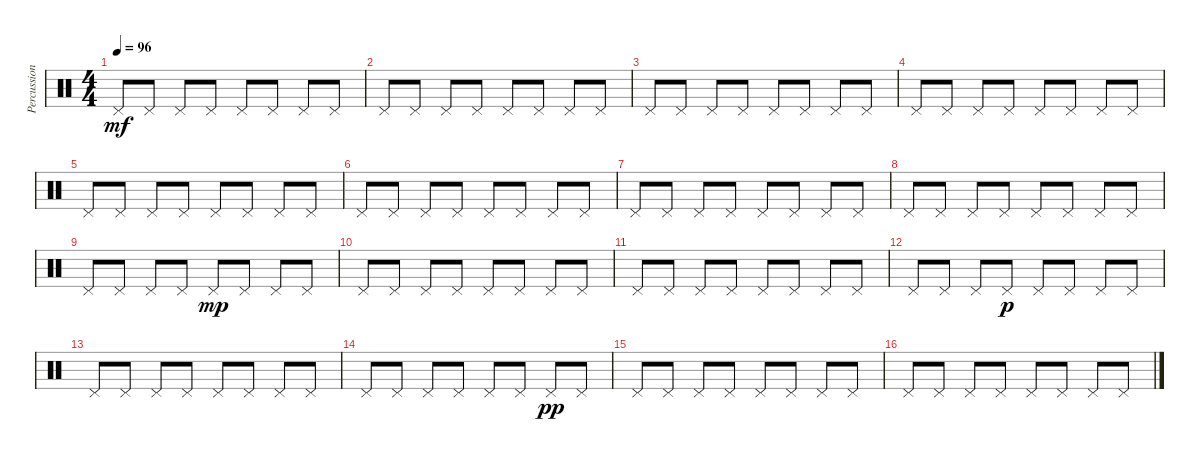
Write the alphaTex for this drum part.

\track ("Percussion" "Percussion") {instrument percussion}
\staff {score}
\articulation defaults
\ts (4 4)
\tempo 96
\clef neutral
\ks c "Pedal Hi-Hat (hit)".8{dy mf} "Pedal Hi-Hat (hit)".8 "Pedal Hi-Hat (hit)".8 "Pedal Hi-Hat (hit)".8 "Pedal Hi-Hat (hit)".8 "Pedal Hi-Hat (hit)".8 "Pedal Hi-Hat (hit)".8 "Pedal Hi-Hat (hit)".8
|
"Pedal Hi-Hat (hit)".8 "Pedal Hi-Hat (hit)".8 "Pedal Hi-Hat (hit)".8 "Pedal Hi-Hat (hit)".8 "Pedal Hi-Hat (hit)".8 "Pedal Hi-Hat (hit)".8 "Pedal Hi-Hat (hit)".8 "Pedal Hi-Hat (hit)".8 |
"Pedal Hi-Hat (hit)".8 "Pedal Hi-Hat (hit)".8 "Pedal Hi-Hat (hit)".8 "Pedal Hi-Hat (hit)".8 "Pedal Hi-Hat (hit)".8 "Pedal Hi-Hat (hit)".8 "Pedal Hi-Hat (hit)".8 "Pedal Hi-Hat (hit)".8 |
"Pedal Hi-Hat (hit)".8 "Pedal Hi-Hat (hit)".8 "Pedal Hi-Hat (hit)".8 "Pedal Hi-Hat (hit)".8 "Pedal Hi-Hat (hit)".8 "Pedal Hi-Hat (hit)".8 "Pedal Hi-Hat (hit)".8 "Pedal Hi-Hat (hit)".8 |
"Pedal Hi-Hat (hit)".8 "Pedal Hi-Hat (hit)".8 "Pedal Hi-Hat (hit)".8 "Pedal Hi-Hat (hit)".8 "Pedal Hi-Hat (hit)".8 "Pedal Hi-Hat (hit)".8 "Pedal Hi-Hat (hit)".8 "Pedal Hi-Hat (hit)".8 |
"Pedal Hi-Hat (hit)".8 "Pedal Hi-Hat (hit)".8 "Pedal Hi-Hat (hit)".8 "Pedal Hi-Hat (hit)".8 "Pedal Hi-Hat (hit)".8 "Pedal Hi-Hat (hit)".8 "Pedal Hi-Hat (hit)".8 "Pedal Hi-Hat (hit)".8 |
"Pedal Hi-Hat (hit)".8 "Pedal Hi-Hat (hit)".8 "Pedal Hi-Hat (hit)".8 "Pedal Hi-Hat (hit)".8 "Pedal Hi-Hat (hit)".8 "Pedal Hi-Hat (hit)".8 "Pedal Hi-Hat (hit)".8 "Pedal Hi-Hat (hit)".8 |
"Pedal Hi-Hat (hit)".8 "Pedal Hi-Hat (hit)".8 "Pedal Hi-Hat (hit)".8 "Pedal Hi-Hat (hit)".8 "Pedal Hi-Hat (hit)".8 "Pedal Hi-Hat (hit)".8 "Pedal Hi-Hat (hit)".8 "Pedal Hi-Hat (hit)".8 |
"Pedal Hi-Hat (hit)".8 "Pedal Hi-Hat (hit)".8 "Pedal Hi-Hat (hit)".8 "Pedal Hi-Hat (hit)".8 "Pedal Hi-Hat (hit)".8{dy mp} "Pedal Hi-Hat (hit)".8 "Pedal Hi-Hat (hit)".8 "Pedal Hi-Hat (hit)".8 |
"Pedal Hi-Hat (hit)".8 "Pedal Hi-Hat (hit)".8 "Pedal Hi-Hat (hit)".8 "Pedal Hi-Hat (hit)".8 "Pedal Hi-Hat (hit)".8 "Pedal Hi-Hat (hit)".8 "Pedal Hi-Hat (hit)".8 "Pedal Hi-Hat (hit)".8 |
"Pedal Hi-Hat (hit)".8 "Pedal Hi-Hat (hit)".8 "Pedal Hi-Hat (hit)".8 "Pedal Hi-Hat (hit)".8 "Pedal Hi-Hat (hit)".8 "Pedal Hi-Hat (hit)".8 "Pedal Hi-Hat (hit)".8 "Pedal Hi-Hat (hit)".8 |
"Pedal Hi-Hat (hit)".8 "Pedal Hi-Hat (hit)".8 "Pedal Hi-Hat (hit)".8 "Pedal Hi-Hat (hit)".8{dy p} "Pedal Hi-Hat (hit)".8 "Pedal Hi-Hat (hit)".8 "Pedal Hi-Hat (hit)".8 "Pedal Hi-Hat (hit)".8 |
"Pedal Hi-Hat (hit)".8 "Pedal Hi-Hat (hit)".8 "Pedal Hi-Hat (hit)".8 "Pedal Hi-Hat (hit)".8 "Pedal Hi-Hat (hit)".8 "Pedal Hi-Hat (hit)".8 "Pedal Hi-Hat (hit)".8 "Pedal Hi-Hat (hit)".8 |
"Pedal Hi-Hat (hit)".8 "Pedal Hi-Hat (hit)".8 "Pedal Hi-Hat (hit)".8 "Pedal Hi-Hat (hit)".8 "Pedal Hi-Hat (hit)".8 "Pedal Hi-Hat (hit)".8 "Pedal Hi-Hat (hit)".8{dy pp} "Pedal Hi-Hat (hit)".8 |
"Pedal Hi-Hat (hit)".8 "Pedal Hi-Hat (hit)".8 "Pedal Hi-Hat (hit)".8 "Pedal Hi-Hat (hit)".8 "Pedal Hi-Hat (hit)".8 "Pedal Hi-Hat (hit)".8 "Pedal Hi-Hat (hit)".8 "Pedal Hi-Hat (hit)".8 |
"Pedal Hi-Hat (hit)".8 "Pedal Hi-Hat (hit)".8 "Pedal Hi-Hat (hit)".8 "Pedal Hi-Hat (hit)".8 "Pedal Hi-Hat (hit)".8 "Pedal Hi-Hat (hit)".8 "Pedal Hi-Hat (hit)".8 "Pedal Hi-Hat (hit)".8
